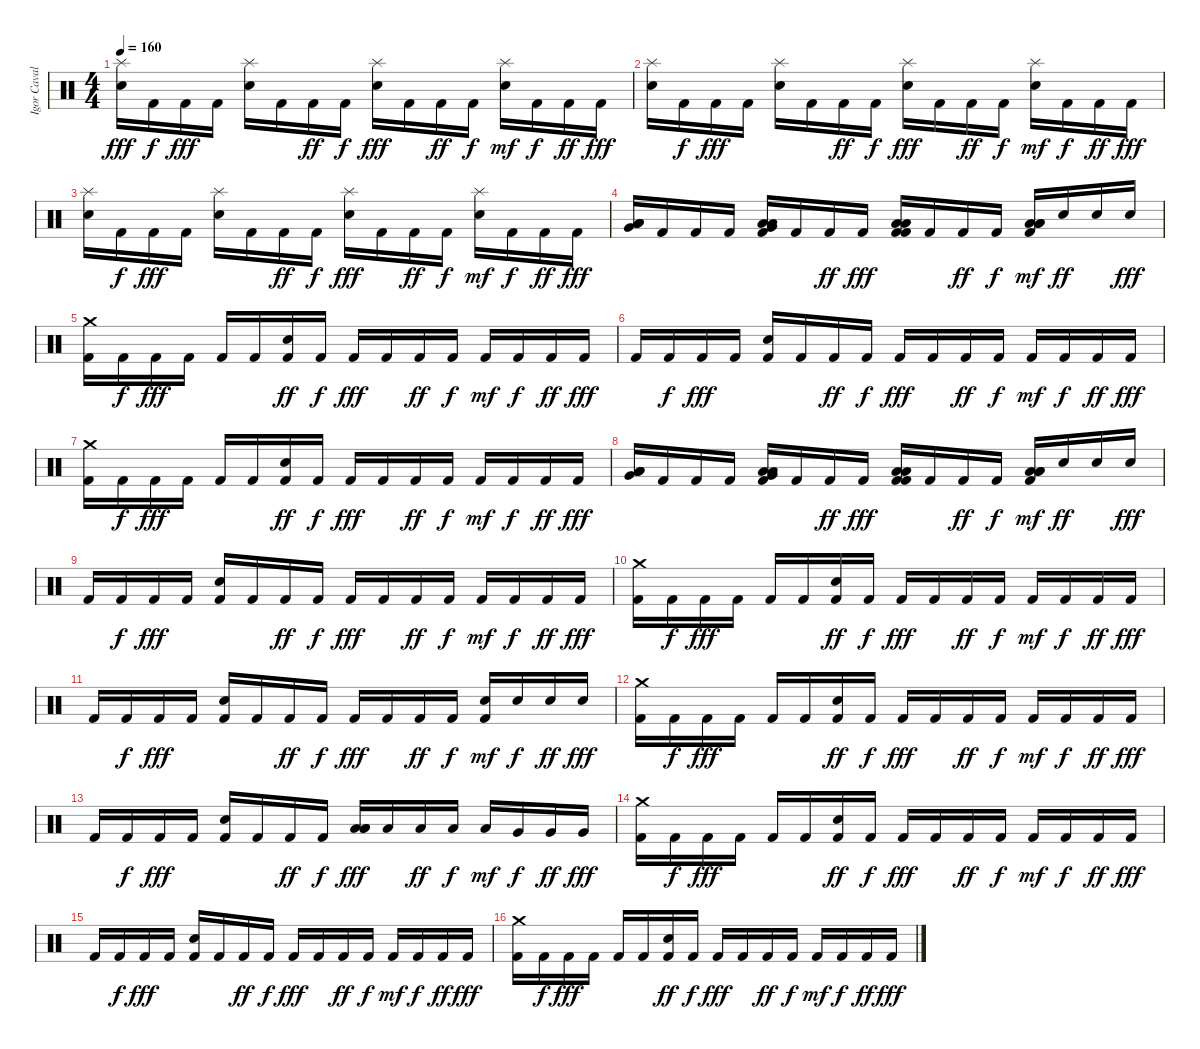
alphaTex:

\track ("Igor Cavalera" "Igor Caval") {instrument percussion}
\staff {score}
\articulation defaults
\ts (4 4)
\tempo 160
\clef neutral
\ks c
("Splash (hit)" "Electric Snare (hit)").16{dy fff} "Kick (hit) 2".16{dy f} "Kick (hit) 2".16{dy fff} "Kick (hit) 2".16 ("Splash (hit)" "Electric Snare (hit)").16 "Kick (hit) 2".16 "Kick (hit) 2".16{dy ff} "Kick (hit) 2".16{dy f} ("Splash (hit)" "Electric Snare (hit)").16{dy fff} "Kick (hit) 2".16 "Kick (hit) 2".16{dy ff} "Kick (hit) 2".16{dy f} ("Splash (hit)" "Electric Snare (hit)").16{dy mf} "Kick (hit) 2".16{dy f} "Kick (hit) 2".16{dy ff} "Kick (hit) 2".16{dy fff} |
("Splash (hit)" "Electric Snare (hit)").16 "Kick (hit) 2".16{dy f} "Kick (hit) 2".16{dy fff} "Kick (hit) 2".16 ("Splash (hit)" "Electric Snare (hit)").16 "Kick (hit) 2".16 "Kick (hit) 2".16{dy ff} "Kick (hit) 2".16{dy f} ("Splash (hit)" "Electric Snare (hit)").16{dy fff} "Kick (hit) 2".16 "Kick (hit) 2".16{dy ff} "Kick (hit) 2".16{dy f} ("Splash (hit)" "Electric Snare (hit)").16{dy mf} "Kick (hit) 2".16{dy f} "Kick (hit) 2".16{dy ff} "Kick (hit) 2".16{dy fff} |
("Splash (hit)" "Electric Snare (hit)").16 "Kick (hit) 2".16{dy f} "Kick (hit) 2".16{dy fff} "Kick (hit) 2".16 ("Splash (hit)" "Electric Snare (hit)").16 "Kick (hit) 2".16 "Kick (hit) 2".16{dy ff} "Kick (hit) 2".16{dy f} ("Splash (hit)" "Electric Snare (hit)").16{dy fff} "Kick (hit) 2".16 "Kick (hit) 2".16{dy ff} "Kick (hit) 2".16{dy f} ("Splash (hit)" "Electric Snare (hit)").16{dy mf} "Kick (hit) 2".16{dy f} "Kick (hit) 2".16{dy ff} "Kick (hit) 2".16{dy fff} |
("Low Floor Tom (hit)" "Low Tom (hit)" "Low Floor Tom (hit)" "Very Low Tom (hit)").16 "Kick (hit) 2".16 "Kick (hit) 2".16 "Kick (hit) 2".16 ("Low Floor Tom (hit)" "Kick (hit) 2" "Low Floor Tom (hit)" "Very Low Tom (hit)").16 "Kick (hit) 2".16 "Kick (hit) 2".16{dy ff} "Kick (hit) 2".16{dy fff} ("Low Floor Tom (hit)" "Kick (hit) 2" "Low Floor Tom (hit)" "Kick (hit) 2").16 "Kick (hit) 2".16 "Kick (hit) 2".16{dy ff} "Kick (hit) 2".16{dy f} ("Low Floor Tom (hit)" "Kick (hit) 2" "Low Floor Tom (hit)" "Low Tom (hit)").16{dy mf} "Electric Snare (hit)".16{dy ff} "Electric Snare (hit)".16 "Electric Snare (hit)".16{dy fff} |
("Kick (hit) 2" "Crash medium (hit)").16 "Kick (hit) 2".16{dy f} "Kick (hit) 2".16{dy fff} "Kick (hit) 2".16 "Kick (hit) 2".16 "Kick (hit) 2".16 ("Kick (hit) 2" "Electric Snare (hit)").16{dy ff} "Kick (hit) 2".16{dy f} "Kick (hit) 2".16{dy fff} "Kick (hit) 2".16 "Kick (hit) 2".16{dy ff} "Kick (hit) 2".16{dy f} "Kick (hit) 2".16{dy mf} "Kick (hit) 2".16{dy f} "Kick (hit) 2".16{dy ff} "Kick (hit) 2".16{dy fff} |
"Kick (hit) 2".16 "Kick (hit) 2".16{dy f} "Kick (hit) 2".16{dy fff} "Kick (hit) 2".16 ("Kick (hit) 2" "Electric Snare (hit)").16 "Kick (hit) 2".16 "Kick (hit) 2".16{dy ff} "Kick (hit) 2".16{dy f} "Kick (hit) 2".16{dy fff} "Kick (hit) 2".16 "Kick (hit) 2".16{dy ff} "Kick (hit) 2".16{dy f} "Kick (hit) 2".16{dy mf} "Kick (hit) 2".16{dy f} "Kick (hit) 2".16{dy ff} "Kick (hit) 2".16{dy fff} |
("Kick (hit) 2" "Crash medium (hit)").16 "Kick (hit) 2".16{dy f} "Kick (hit) 2".16{dy fff} "Kick (hit) 2".16 "Kick (hit) 2".16 "Kick (hit) 2".16 ("Kick (hit) 2" "Electric Snare (hit)").16{dy ff} "Kick (hit) 2".16{dy f} "Kick (hit) 2".16{dy fff} "Kick (hit) 2".16 "Kick (hit) 2".16{dy ff} "Kick (hit) 2".16{dy f} "Kick (hit) 2".16{dy mf} "Kick (hit) 2".16{dy f} "Kick (hit) 2".16{dy ff} "Kick (hit) 2".16{dy fff} |
("Low Floor Tom (hit)" "Low Tom (hit)" "Low Floor Tom (hit)" "Very Low Tom (hit)").16{volume 13} "Kick (hit) 2".16 "Kick (hit) 2".16 "Kick (hit) 2".16 ("Low Floor Tom (hit)" "Kick (hit) 2" "Low Floor Tom (hit)" "Very Low Tom (hit)").16 "Kick (hit) 2".16 "Kick (hit) 2".16{dy ff} "Kick (hit) 2".16{dy fff} ("Low Floor Tom (hit)" "Kick (hit) 2" "Low Floor Tom (hit)" "Kick (hit) 2").16 "Kick (hit) 2".16 "Kick (hit) 2".16{dy ff} "Kick (hit) 2".16{dy f} ("Low Floor Tom (hit)" "Kick (hit) 2" "Low Floor Tom (hit)" "Low Tom (hit)").16{dy mf} "Electric Snare (hit)".16{dy ff} "Electric Snare (hit)".16 "Electric Snare (hit)".16{dy fff} |
"Kick (hit) 2".16 "Kick (hit) 2".16{dy f} "Kick (hit) 2".16{dy fff} "Kick (hit) 2".16 ("Kick (hit) 2" "Electric Snare (hit)").16 "Kick (hit) 2".16 "Kick (hit) 2".16{dy ff} "Kick (hit) 2".16{dy f} "Kick (hit) 2".16{dy fff} "Kick (hit) 2".16 "Kick (hit) 2".16{dy ff} "Kick (hit) 2".16{dy f} "Kick (hit) 2".16{dy mf} "Kick (hit) 2".16{dy f} "Kick (hit) 2".16{dy ff} "Kick (hit) 2".16{dy fff} |
("Kick (hit) 2" "Crash medium (hit)").16{volume 9} "Kick (hit) 2".16{dy f} "Kick (hit) 2".16{dy fff} "Kick (hit) 2".16 "Kick (hit) 2".16 "Kick (hit) 2".16 ("Kick (hit) 2" "Electric Snare (hit)").16{dy ff} "Kick (hit) 2".16{dy f} "Kick (hit) 2".16{dy fff} "Kick (hit) 2".16 "Kick (hit) 2".16{dy ff} "Kick (hit) 2".16{dy f} "Kick (hit) 2".16{dy mf} "Kick (hit) 2".16{dy f} "Kick (hit) 2".16{dy ff} "Kick (hit) 2".16{dy fff} |
"Kick (hit) 2".16 "Kick (hit) 2".16{dy f} "Kick (hit) 2".16{dy fff} "Kick (hit) 2".16 ("Kick (hit) 2" "Electric Snare (hit)").16 "Kick (hit) 2".16 "Kick (hit) 2".16{dy ff} "Kick (hit) 2".16{dy f} "Kick (hit) 2".16{dy fff} "Kick (hit) 2".16 "Kick (hit) 2".16{dy ff} "Kick (hit) 2".16{dy f} ("Kick (hit) 2" "Electric Snare (hit)").16{dy mf} "Electric Snare (hit)".16{dy f} "Electric Snare (hit)".16{dy ff} "Electric Snare (hit)".16{dy fff} |
("Kick (hit) 2" "Crash medium (hit)").16{volume 4} "Kick (hit) 2".16{dy f} "Kick (hit) 2".16{dy fff} "Kick (hit) 2".16 "Kick (hit) 2".16 "Kick (hit) 2".16 ("Kick (hit) 2" "Electric Snare (hit)").16{dy ff} "Kick (hit) 2".16{dy f} "Kick (hit) 2".16{dy fff} "Kick (hit) 2".16 "Kick (hit) 2".16{dy ff} "Kick (hit) 2".16{dy f} "Kick (hit) 2".16{dy mf} "Kick (hit) 2".16{dy f} "Kick (hit) 2".16{dy ff} "Kick (hit) 2".16{dy fff} |
"Kick (hit) 2".16 "Kick (hit) 2".16{dy f} "Kick (hit) 2".16{dy fff} "Kick (hit) 2".16 ("Kick (hit) 2" "Electric Snare (hit)").16 "Kick (hit) 2".16 "Kick (hit) 2".16{dy ff} "Kick (hit) 2".16{dy f} ("Low Floor Tom (hit)" "Low Tom (hit)" "Low Floor Tom (hit)").16{dy fff} "Low Tom (hit)".16 "Low Tom (hit)".16{dy ff} "Low Tom (hit)".16{dy f} "Low Tom (hit)".16{dy mf} "Very Low Tom (hit)".16{dy f} "Very Low Tom (hit)".16{dy ff} "Very Low Tom (hit)".16{dy fff} |
("Kick (hit) 2" "Crash medium (hit)").16{volume 3} "Kick (hit) 2".16{dy f} "Kick (hit) 2".16{dy fff} "Kick (hit) 2".16 "Kick (hit) 2".16 "Kick (hit) 2".16 ("Kick (hit) 2" "Electric Snare (hit)").16{dy ff} "Kick (hit) 2".16{dy f} "Kick (hit) 2".16{dy fff} "Kick (hit) 2".16 "Kick (hit) 2".16{dy ff} "Kick (hit) 2".16{dy f} "Kick (hit) 2".16{dy mf} "Kick (hit) 2".16{dy f} "Kick (hit) 2".16{dy ff} "Kick (hit) 2".16{dy fff} |
"Kick (hit) 2".16 "Kick (hit) 2".16{dy f} "Kick (hit) 2".16{dy fff} "Kick (hit) 2".16 ("Kick (hit) 2" "Electric Snare (hit)").16 "Kick (hit) 2".16 "Kick (hit) 2".16{dy ff} "Kick (hit) 2".16{dy f} "Kick (hit) 2".16{dy fff} "Kick (hit) 2".16 "Kick (hit) 2".16{dy ff} "Kick (hit) 2".16{dy f} "Kick (hit) 2".16{dy mf} "Kick (hit) 2".16{dy f} "Kick (hit) 2".16{dy ff} "Kick (hit) 2".16{dy fff} |
("Kick (hit) 2" "Crash medium (hit)").16{volume 2} "Kick (hit) 2".16{dy f} "Kick (hit) 2".16{dy fff} "Kick (hit) 2".16 "Kick (hit) 2".16 "Kick (hit) 2".16 ("Kick (hit) 2" "Electric Snare (hit)").16{dy ff} "Kick (hit) 2".16{dy f} "Kick (hit) 2".16{dy fff} "Kick (hit) 2".16 "Kick (hit) 2".16{dy ff} "Kick (hit) 2".16{dy f} "Kick (hit) 2".16{dy mf} "Kick (hit) 2".16{dy f} "Kick (hit) 2".16{dy ff} "Kick (hit) 2".16{dy fff}
